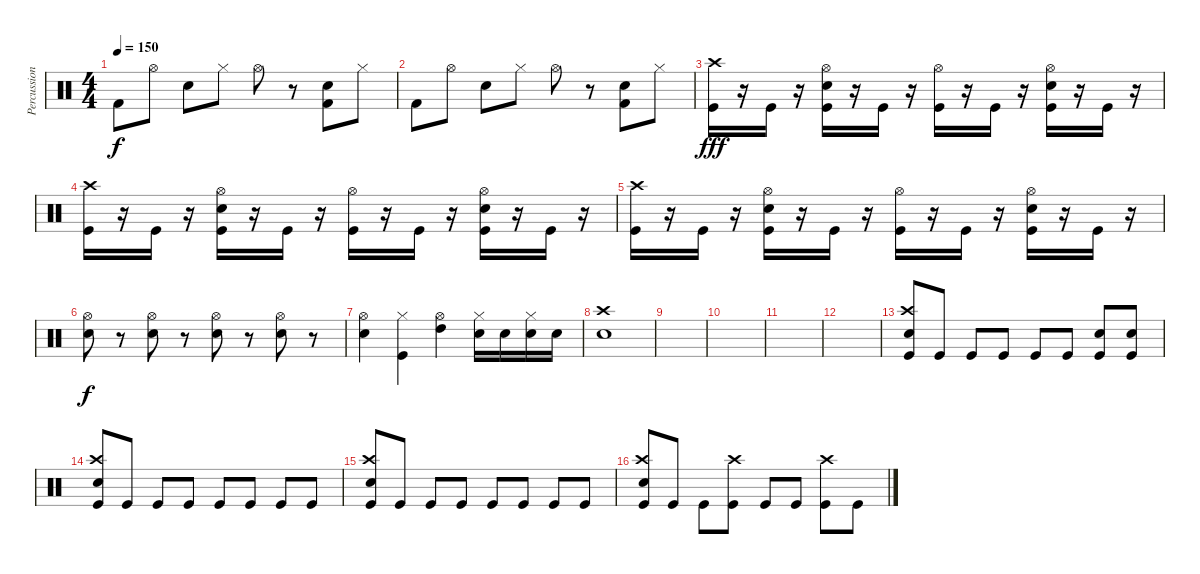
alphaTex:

\track ("Percussion" "Percussion") {instrument percussion}
\staff {score}
\articulation defaults
\ts (4 4)
\tempo 150
\clef neutral
\ks c "Kick (hit) 2".8{dy f} "Hi-Hat (open)".8 "Snare (hit) 2".8 "Hi-Hat (closed)".8 "Hi-Hat (open)".8
r.8 ("Snare (hit) 2" "Kick (hit) 2").8 "Hi-Hat (closed)".8 |
"Kick (hit) 2".8 "Hi-Hat (open)".8 "Snare (hit) 2".8 "Hi-Hat (closed)".8 "Hi-Hat (open)".8 r.8 ("Snare (hit) 2" "Kick (hit) 2").8 "Hi-Hat (closed)".8 |
("Crash high (hit)" "Kick (hit)").16{dy fff} r.16 "Kick (hit)".16 r.16 ("Hi-Hat (open)" "Snare (hit) 2" "Kick (hit)").16 r.16 "Kick (hit)".16 r.16 ("Hi-Hat (open)" "Kick (hit)").16 r.16 "Kick (hit)".16 r.16 ("Hi-Hat (open)" "Snare (hit) 2" "Kick (hit)").16 r.16 "Kick (hit)".16 r.16 |
("Crash high (hit)" "Kick (hit)").16 r.16 "Kick (hit)".16 r.16 ("Hi-Hat (open)" "Snare (hit) 2" "Kick (hit)").16 r.16 "Kick (hit)".16 r.16 ("Hi-Hat (open)" "Kick (hit)").16 r.16 "Kick (hit)".16 r.16 ("Hi-Hat (open)" "Snare (hit) 2" "Kick (hit)").16 r.16 "Kick (hit)".16 r.16 |
("Crash high (hit)" "Kick (hit)").16 r.16 "Kick (hit)".16 r.16 ("Hi-Hat (open)" "Snare (hit) 2" "Kick (hit)").16 r.16 "Kick (hit)".16 r.16 ("Hi-Hat (open)" "Kick (hit)").16 r.16 "Kick (hit)".16 r.16 ("Hi-Hat (open)" "Snare (hit) 2" "Kick (hit)").16 r.16 "Kick (hit)".16 r.16 |
("Hi-Hat (open)" "Snare (hit) 2").8{dy f} r.8 ("Hi-Hat (open)" "Snare (hit) 2").8 r.8 ("Hi-Hat (open)" "Snare (hit) 2").8 r.8 ("Hi-Hat (open)" "Snare (hit) 2").8 r.8 |
("Hi-Hat (open)" "Snare (hit) 2").4 ("Hi-Hat (closed)" "Kick (hit)").4 ("Hi-Hat (open)" "High Tom (hit)").4 ("Hi-Hat (closed)" "Snare (hit) 2").16 "Snare (hit) 2".16 ("Hi-Hat (closed)" "Snare (hit) 2").16 "Snare (hit) 2".16 |
("Crash high (hit)" "Snare (hit) 2").1 |
|
|
|
|
("Crash high (hit)" "Snare (hit) 2" "Kick (hit)").8 "Kick (hit)".8 "Kick (hit)".8 "Kick (hit)".8 "Kick (hit)".8 "Kick (hit)".8 ("Snare (hit) 2" "Kick (hit)").8 ("Snare (hit) 2" "Kick (hit)").8 |
("Crash high (hit)" "Snare (hit) 2" "Kick (hit)").8 "Kick (hit)".8 "Kick (hit)".8 "Kick (hit)".8 "Kick (hit)".8 "Kick (hit)".8 "Kick (hit)".8 "Kick (hit)".8 |
("Crash high (hit)" "Snare (hit) 2" "Kick (hit)").8 "Kick (hit)".8 "Kick (hit)".8 "Kick (hit)".8 "Kick (hit)".8 "Kick (hit)".8 "Kick (hit)".8 "Kick (hit)".8 |
("Crash high (hit)" "Snare (hit) 2" "Kick (hit)").8 "Kick (hit)".8 "Kick (hit)".8 ("Crash high (hit)" "Kick (hit)").8 "Kick (hit)".8 "Kick (hit)".8 ("Crash high (hit)" "Kick (hit)").8 "Kick (hit)".8
